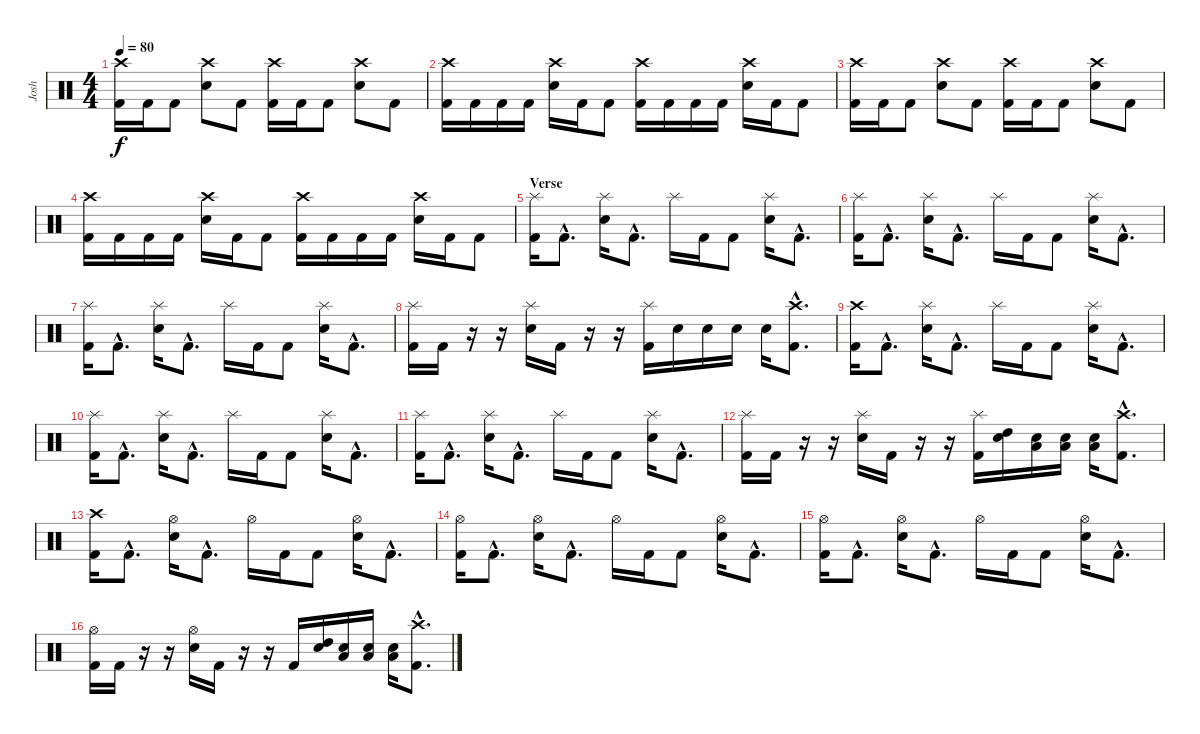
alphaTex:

\track ("Josh" "Josh") {instrument percussion}
\staff {score}
\articulation defaults
\ts (4 4)
\tempo 80
\clef neutral
\ks c
("Crash high (hit)" "Kick (hit) 2").16{dy f} "Kick (hit) 2".16 "Kick (hit) 2".8 ("Crash high (hit)" "Electric Snare (hit)").8 "Kick (hit) 2".8 ("Crash high (hit)" "Kick (hit) 2").16 "Kick (hit) 2".16 "Kick (hit) 2".8 ("Crash high (hit)" "Electric Snare (hit)").8 "Kick (hit) 2".8 |
("Crash high (hit)" "Kick (hit) 2").16 "Kick (hit) 2".16 "Kick (hit) 2".16 "Kick (hit) 2".16 ("Crash high (hit)" "Electric Snare (hit)").16 "Kick (hit) 2".16 "Kick (hit) 2".8 ("Crash high (hit)" "Kick (hit) 2").16 "Kick (hit) 2".16 "Kick (hit) 2".16 "Kick (hit) 2".16 ("Crash high (hit)" "Electric Snare (hit)").16 "Kick (hit) 2".16 "Kick (hit) 2".8 |
("Crash high (hit)" "Kick (hit) 2").16 "Kick (hit) 2".16 "Kick (hit) 2".8 ("Crash high (hit)" "Electric Snare (hit)").8 "Kick (hit) 2".8 ("Crash high (hit)" "Kick (hit) 2").16 "Kick (hit) 2".16 "Kick (hit) 2".8 ("Crash high (hit)" "Electric Snare (hit)").8 "Kick (hit) 2".8 |
("Crash high (hit)" "Kick (hit) 2").16 "Kick (hit) 2".16 "Kick (hit) 2".16 "Kick (hit) 2".16 ("Crash high (hit)" "Electric Snare (hit)").16 "Kick (hit) 2".16 "Kick (hit) 2".8 ("Crash high (hit)" "Kick (hit) 2").16 "Kick (hit) 2".16 "Kick (hit) 2".16 "Kick (hit) 2".16 ("Crash high (hit)" "Electric Snare (hit)").16 "Kick (hit) 2".16 "Kick (hit) 2".8 |
\section ("" "Verse")
("Splash (hit)" "Kick (hit) 2").16 "Kick (hit) 2"{hac}.8{d} ("Splash (hit)" "Electric Snare (hit)").16 "Kick (hit) 2"{hac}.8{d} "Splash (hit)".16 "Kick (hit) 2".16 "Kick (hit) 2".8 ("Splash (hit)" "Electric Snare (hit)").16 "Kick (hit) 2"{hac}.8{d} |
("Splash (hit)" "Kick (hit) 2").16 "Kick (hit) 2"{hac}.8{d} ("Splash (hit)" "Electric Snare (hit)").16 "Kick (hit) 2"{hac}.8{d} "Splash (hit)".16 "Kick (hit) 2".16 "Kick (hit) 2".8 ("Splash (hit)" "Electric Snare (hit)").16 "Kick (hit) 2"{hac}.8{d} |
("Splash (hit)" "Kick (hit) 2").16 "Kick (hit) 2"{hac}.8{d} ("Splash (hit)" "Electric Snare (hit)").16 "Kick (hit) 2"{hac}.8{d} "Splash (hit)".16 "Kick (hit) 2".16 "Kick (hit) 2".8 ("Splash (hit)" "Electric Snare (hit)").16 "Kick (hit) 2"{hac}.8{d} |
("Splash (hit)" "Kick (hit) 2").16 "Kick (hit) 2".16 r.16 r.16 ("Splash (hit)" "Electric Snare (hit)").16 "Kick (hit) 2".16 r.16 r.16 ("Splash (hit)" "Kick (hit) 2").16 "Electric Snare (hit)".16 "Electric Snare (hit)".16 "Electric Snare (hit)".16 "Electric Snare (hit)".16 ("Crash high (hit)"{hac} "Kick (hit) 2"{hac}).8{d} |
("Crash high (hit)" "Kick (hit) 2").16 "Kick (hit) 2"{hac}.8{d} ("Splash (hit)" "Electric Snare (hit)").16 "Kick (hit) 2"{hac}.8{d} "Splash (hit)".16 "Kick (hit) 2".16 "Kick (hit) 2".8 ("Splash (hit)" "Electric Snare (hit)").16 "Kick (hit) 2"{hac}.8{d} |
("Splash (hit)" "Kick (hit) 2").16 "Kick (hit) 2"{hac}.8{d} ("Splash (hit)" "Electric Snare (hit)").16 "Kick (hit) 2"{hac}.8{d} "Splash (hit)".16 "Kick (hit) 2".16 "Kick (hit) 2".8 ("Splash (hit)" "Electric Snare (hit)").16 "Kick (hit) 2"{hac}.8{d} |
("Splash (hit)" "Kick (hit) 2").16 "Kick (hit) 2"{hac}.8{d} ("Splash (hit)" "Electric Snare (hit)").16 "Kick (hit) 2"{hac}.8{d} "Splash (hit)".16 "Kick (hit) 2".16 "Kick (hit) 2".8 ("Splash (hit)" "Electric Snare (hit)").16 "Kick (hit) 2"{hac}.8{d} |
("Splash (hit)" "Kick (hit) 2").16 "Kick (hit) 2".16 r.16 r.16 ("Splash (hit)" "Electric Snare (hit)").16 "Kick (hit) 2".16 r.16 r.16 ("Splash (hit)" "Kick (hit) 2").16 ("High Tom (hit)" "Electric Snare (hit)").16 ("Electric Snare (hit)" "Low Floor Tom (hit)").16 ("Electric Snare (hit)" "Low Floor Tom (hit)").16 ("Electric Snare (hit)" "Low Floor Tom (hit)").16 ("Crash high (hit)"{hac} "Kick (hit) 2"{hac}).8{d} |
("Crash high (hit)" "Kick (hit) 2").16 "Kick (hit) 2"{hac}.8{d} ("Hi-Hat (open)" "Electric Snare (hit)").16 "Kick (hit) 2"{hac}.8{d} "Hi-Hat (open)".16 "Kick (hit) 2".16 "Kick (hit) 2".8 ("Hi-Hat (open)" "Electric Snare (hit)").16 "Kick (hit) 2"{hac}.8{d} |
("Hi-Hat (open)" "Kick (hit) 2").16 "Kick (hit) 2"{hac}.8{d} ("Hi-Hat (open)" "Electric Snare (hit)").16 "Kick (hit) 2"{hac}.8{d} "Hi-Hat (open)".16 "Kick (hit) 2".16 "Kick (hit) 2".8 ("Hi-Hat (open)" "Electric Snare (hit)").16 "Kick (hit) 2"{hac}.8{d} |
("Hi-Hat (open)" "Kick (hit) 2").16 "Kick (hit) 2"{hac}.8{d} ("Hi-Hat (open)" "Electric Snare (hit)").16 "Kick (hit) 2"{hac}.8{d} "Hi-Hat (open)".16 "Kick (hit) 2".16 "Kick (hit) 2".8 ("Hi-Hat (open)" "Electric Snare (hit)").16 "Kick (hit) 2"{hac}.8{d} |
("Hi-Hat (open)" "Kick (hit) 2").16 "Kick (hit) 2".16 r.16 r.16 ("Hi-Hat (open)" "Electric Snare (hit)").16 "Kick (hit) 2".16 r.16 r.16 "Kick (hit) 2".16 ("High Tom (hit)" "Electric Snare (hit)").16 ("Electric Snare (hit)" "Low Floor Tom (hit)").16 ("Electric Snare (hit)" "Low Floor Tom (hit)").16 ("Electric Snare (hit)" "Low Floor Tom (hit)").16 ("Crash high (hit)"{hac} "Kick (hit) 2"{hac}).8{d}
